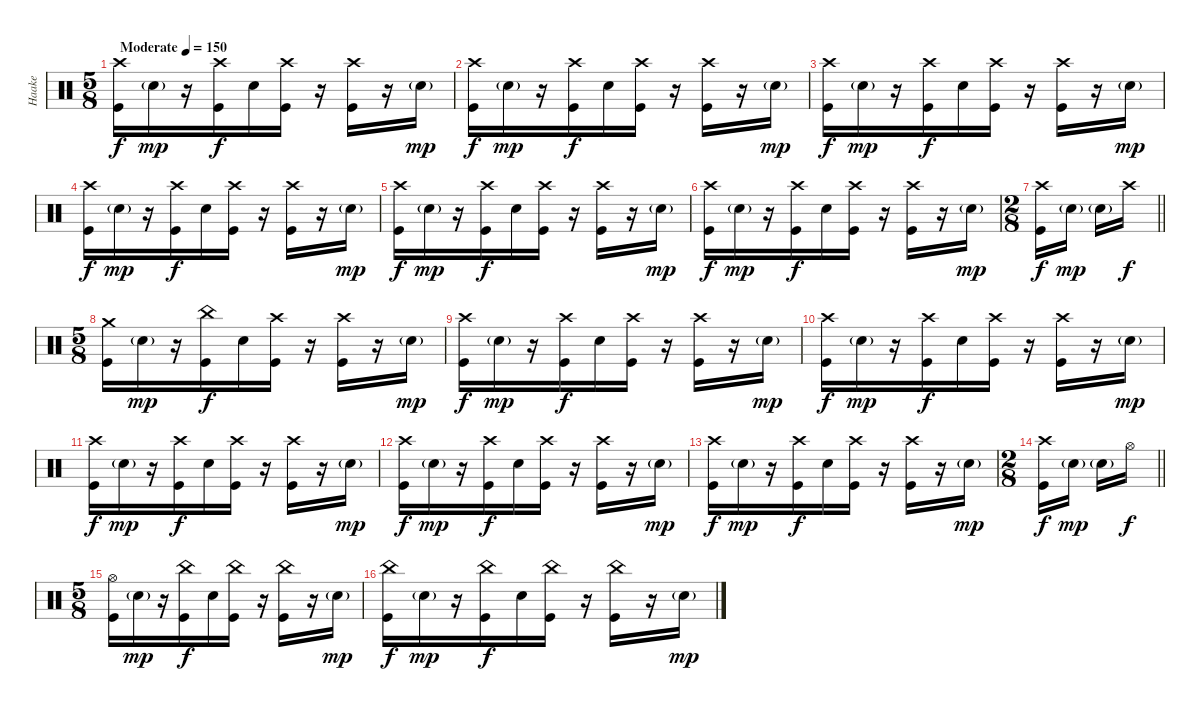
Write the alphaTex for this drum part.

\track ("Haake" "Haake") {instrument percussion}
\staff {score}
\articulation defaults
\ts (5 8)
\tempo (150 "Moderate")
\clef neutral
\ks c
("Crash high (hit)" "Kick (hit)").16{dy f} "Snare (hit) 2"{g}.16{dy mp} r.16 ("Crash high (hit)" "Kick (hit)").16{dy f} "Snare (hit) 2".16 ("Crash high (hit)" "Kick (hit)").16 r.16 ("Crash high (hit)" "Kick (hit)").16 r.16 "Snare (hit) 2"{g}.16{dy mp} |
("Crash high (hit)" "Kick (hit)").16{dy f} "Snare (hit) 2"{g}.16{dy mp} r.16 ("Crash high (hit)" "Kick (hit)").16{dy f} "Snare (hit) 2".16 ("Crash high (hit)" "Kick (hit)").16 r.16 ("Crash high (hit)" "Kick (hit)").16 r.16 "Snare (hit) 2"{g}.16{dy mp} |
("Crash high (hit)" "Kick (hit)").16{dy f} "Snare (hit) 2"{g}.16{dy mp} r.16 ("Crash high (hit)" "Kick (hit)").16{dy f} "Snare (hit) 2".16 ("Crash high (hit)" "Kick (hit)").16 r.16 ("Crash high (hit)" "Kick (hit)").16 r.16 "Snare (hit) 2"{g}.16{dy mp} |
("Crash high (hit)" "Kick (hit)").16{dy f} "Snare (hit) 2"{g}.16{dy mp} r.16 ("Crash high (hit)" "Kick (hit)").16{dy f} "Snare (hit) 2".16 ("Crash high (hit)" "Kick (hit)").16 r.16 ("Crash high (hit)" "Kick (hit)").16 r.16 "Snare (hit) 2"{g}.16{dy mp} |
("Crash high (hit)" "Kick (hit)").16{dy f} "Snare (hit) 2"{g}.16{dy mp} r.16 ("Crash high (hit)" "Kick (hit)").16{dy f} "Snare (hit) 2".16 ("Crash high (hit)" "Kick (hit)").16 r.16 ("Crash high (hit)" "Kick (hit)").16 r.16 "Snare (hit) 2"{g}.16{dy mp} |
("Crash high (hit)" "Kick (hit)").16{dy f} "Snare (hit) 2"{g}.16{dy mp} r.16 ("Crash high (hit)" "Kick (hit)").16{dy f} "Snare (hit) 2".16 ("Crash high (hit)" "Kick (hit)").16 r.16 ("Crash high (hit)" "Kick (hit)").16 r.16 "Snare (hit) 2"{g}.16{dy mp} |
\ts (2 8)
\barLineRight lightlight
("Crash high (hit)" "Kick (hit)").16{dy f} "Snare (hit) 2"{g}.16{dy mp} "Snare (hit) 2"{g}.16 "Crash high (hit)".16{dy f} |
\ts (5 8)
("Crash medium (hit)" "Kick (hit)").16 "Snare (hit) 2"{g}.16{dy mp} r.16 ("China (hit)" "Kick (hit)").16{dy f} "Snare (hit) 2".16 ("Crash high (hit)" "Kick (hit)").16 r.16 ("Crash high (hit)" "Kick (hit)").16 r.16 "Snare (hit) 2"{g}.16{dy mp} |
("Crash high (hit)" "Kick (hit)").16{dy f} "Snare (hit) 2"{g}.16{dy mp} r.16 ("Crash high (hit)" "Kick (hit)").16{dy f} "Snare (hit) 2".16 ("Crash high (hit)" "Kick (hit)").16 r.16 ("Crash high (hit)" "Kick (hit)").16 r.16 "Snare (hit) 2"{g}.16{dy mp} |
("Crash high (hit)" "Kick (hit)").16{dy f} "Snare (hit) 2"{g}.16{dy mp} r.16 ("Crash high (hit)" "Kick (hit)").16{dy f} "Snare (hit) 2".16 ("Crash high (hit)" "Kick (hit)").16 r.16 ("Crash high (hit)" "Kick (hit)").16 r.16 "Snare (hit) 2"{g}.16{dy mp} |
("Crash high (hit)" "Kick (hit)").16{dy f} "Snare (hit) 2"{g}.16{dy mp} r.16 ("Crash high (hit)" "Kick (hit)").16{dy f} "Snare (hit) 2".16 ("Crash high (hit)" "Kick (hit)").16 r.16 ("Crash high (hit)" "Kick (hit)").16 r.16 "Snare (hit) 2"{g}.16{dy mp} |
("Crash high (hit)" "Kick (hit)").16{dy f} "Snare (hit) 2"{g}.16{dy mp} r.16 ("Crash high (hit)" "Kick (hit)").16{dy f} "Snare (hit) 2".16 ("Crash high (hit)" "Kick (hit)").16 r.16 ("Crash high (hit)" "Kick (hit)").16 r.16 "Snare (hit) 2"{g}.16{dy mp} |
("Crash high (hit)" "Kick (hit)").16{dy f} "Snare (hit) 2"{g}.16{dy mp} r.16 ("Crash high (hit)" "Kick (hit)").16{dy f} "Snare (hit) 2".16 ("Crash high (hit)" "Kick (hit)").16 r.16 ("Crash high (hit)" "Kick (hit)").16 r.16 "Snare (hit) 2"{g}.16{dy mp} |
\ts (2 8)
\barLineRight lightlight
("Crash high (hit)" "Kick (hit)").16{dy f} "Snare (hit) 2"{g}.16{dy mp} "Snare (hit) 2"{g}.16 "Hi-Hat (open)".16{dy f} |
\ts (5 8)
("Hi-Hat (open)" "Kick (hit)").16 "Snare (hit) 2"{g}.16{dy mp} r.16 ("China (hit)" "Kick (hit)").16{dy f} "Snare (hit) 2".16 ("China (hit)" "Kick (hit)").16 r.16 ("China (hit)" "Kick (hit)").16 r.16 "Snare (hit) 2"{g}.16{dy mp} |
("China (hit)" "Kick (hit)").16{dy f} "Snare (hit) 2"{g}.16{dy mp} r.16 ("China (hit)" "Kick (hit)").16{dy f} "Snare (hit) 2".16 ("China (hit)" "Kick (hit)").16 r.16 ("China (hit)" "Kick (hit)").16 r.16 "Snare (hit) 2"{g}.16{dy mp}
